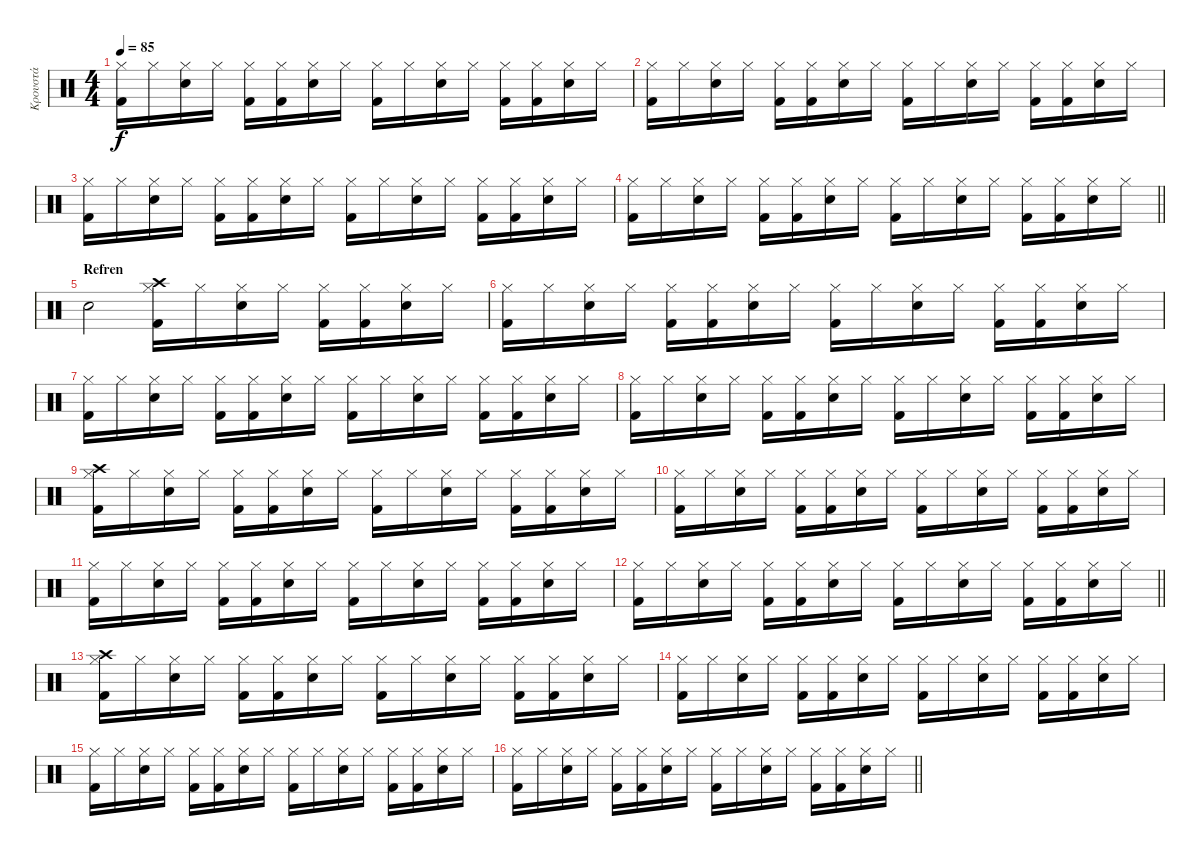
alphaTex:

\track ("Κρουστά" "Κρουστά") {instrument percussion}
\staff {score}
\articulation defaults
\ts (4 4)
\tempo 85
\clef neutral
\ks c
("Hi-Hat (closed)" "Kick (hit) 2").16{dy f} "Hi-Hat (closed)".16 ("Hi-Hat (closed)" "Snare (hit) 2").16 "Hi-Hat (closed)".16 ("Hi-Hat (closed)" "Kick (hit) 2").16 ("Hi-Hat (closed)" "Kick (hit) 2").16 ("Hi-Hat (closed)" "Snare (hit) 2").16 "Hi-Hat (closed)".16 ("Hi-Hat (closed)" "Kick (hit) 2").16 "Hi-Hat (closed)".16 ("Hi-Hat (closed)" "Snare (hit) 2").16 "Hi-Hat (closed)".16 ("Hi-Hat (closed)" "Kick (hit) 2").16 ("Hi-Hat (closed)" "Kick (hit) 2").16 ("Hi-Hat (closed)" "Snare (hit) 2").16 "Hi-Hat (closed)".16 |
("Hi-Hat (closed)" "Kick (hit) 2").16 "Hi-Hat (closed)".16 ("Hi-Hat (closed)" "Snare (hit) 2").16 "Hi-Hat (closed)".16 ("Hi-Hat (closed)" "Kick (hit) 2").16 ("Hi-Hat (closed)" "Kick (hit) 2").16 ("Hi-Hat (closed)" "Snare (hit) 2").16 "Hi-Hat (closed)".16 ("Hi-Hat (closed)" "Kick (hit) 2").16 "Hi-Hat (closed)".16 ("Hi-Hat (closed)" "Snare (hit) 2").16 "Hi-Hat (closed)".16 ("Hi-Hat (closed)" "Kick (hit) 2").16 ("Hi-Hat (closed)" "Kick (hit) 2").16 ("Hi-Hat (closed)" "Snare (hit) 2").16 "Hi-Hat (closed)".16 |
("Hi-Hat (closed)" "Kick (hit) 2").16 "Hi-Hat (closed)".16 ("Hi-Hat (closed)" "Snare (hit) 2").16 "Hi-Hat (closed)".16 ("Hi-Hat (closed)" "Kick (hit) 2").16 ("Hi-Hat (closed)" "Kick (hit) 2").16 ("Hi-Hat (closed)" "Snare (hit) 2").16 "Hi-Hat (closed)".16 ("Hi-Hat (closed)" "Kick (hit) 2").16 "Hi-Hat (closed)".16 ("Hi-Hat (closed)" "Snare (hit) 2").16 "Hi-Hat (closed)".16 ("Hi-Hat (closed)" "Kick (hit) 2").16 ("Hi-Hat (closed)" "Kick (hit) 2").16 ("Hi-Hat (closed)" "Snare (hit) 2").16 "Hi-Hat (closed)".16 |
\barLineRight lightlight
("Hi-Hat (closed)" "Kick (hit) 2").16 "Hi-Hat (closed)".16 ("Hi-Hat (closed)" "Snare (hit) 2").16 "Hi-Hat (closed)".16 ("Hi-Hat (closed)" "Kick (hit) 2").16 ("Hi-Hat (closed)" "Kick (hit) 2").16 ("Hi-Hat (closed)" "Snare (hit) 2").16 "Hi-Hat (closed)".16 ("Hi-Hat (closed)" "Kick (hit) 2").16 "Hi-Hat (closed)".16 ("Hi-Hat (closed)" "Snare (hit) 2").16 "Hi-Hat (closed)".16 ("Hi-Hat (closed)" "Kick (hit) 2").16 ("Hi-Hat (closed)" "Kick (hit) 2").16 ("Hi-Hat (closed)" "Snare (hit) 2").16 "Hi-Hat (closed)".16 |
\section ("" "Refren")
"Snare (hit) 2".2 ("Crash high (hit)" "Hi-Hat (closed)" "Kick (hit) 2").16 "Hi-Hat (closed)".16 ("Hi-Hat (closed)" "Snare (hit) 2").16 "Hi-Hat (closed)".16 ("Hi-Hat (closed)" "Kick (hit) 2").16 ("Hi-Hat (closed)" "Kick (hit) 2").16 ("Hi-Hat (closed)" "Snare (hit) 2").16 "Hi-Hat (closed)".16 |
("Hi-Hat (closed)" "Kick (hit) 2").16 "Hi-Hat (closed)".16 ("Hi-Hat (closed)" "Snare (hit) 2").16 "Hi-Hat (closed)".16 ("Hi-Hat (closed)" "Kick (hit) 2").16 ("Hi-Hat (closed)" "Kick (hit) 2").16 ("Hi-Hat (closed)" "Snare (hit) 2").16 "Hi-Hat (closed)".16 ("Hi-Hat (closed)" "Kick (hit) 2").16 "Hi-Hat (closed)".16 ("Hi-Hat (closed)" "Snare (hit) 2").16 "Hi-Hat (closed)".16 ("Hi-Hat (closed)" "Kick (hit) 2").16 ("Hi-Hat (closed)" "Kick (hit) 2").16 ("Hi-Hat (closed)" "Snare (hit) 2").16 "Hi-Hat (closed)".16 |
("Hi-Hat (closed)" "Kick (hit) 2").16 "Hi-Hat (closed)".16 ("Hi-Hat (closed)" "Snare (hit) 2").16 "Hi-Hat (closed)".16 ("Hi-Hat (closed)" "Kick (hit) 2").16 ("Hi-Hat (closed)" "Kick (hit) 2").16 ("Hi-Hat (closed)" "Snare (hit) 2").16 "Hi-Hat (closed)".16 ("Hi-Hat (closed)" "Kick (hit) 2").16 "Hi-Hat (closed)".16 ("Hi-Hat (closed)" "Snare (hit) 2").16 "Hi-Hat (closed)".16 ("Hi-Hat (closed)" "Kick (hit) 2").16 ("Hi-Hat (closed)" "Kick (hit) 2").16 ("Hi-Hat (closed)" "Snare (hit) 2").16 "Hi-Hat (closed)".16 |
("Hi-Hat (closed)" "Kick (hit) 2").16 "Hi-Hat (closed)".16 ("Hi-Hat (closed)" "Snare (hit) 2").16 "Hi-Hat (closed)".16 ("Hi-Hat (closed)" "Kick (hit) 2").16 ("Hi-Hat (closed)" "Kick (hit) 2").16 ("Hi-Hat (closed)" "Snare (hit) 2").16 "Hi-Hat (closed)".16 ("Hi-Hat (closed)" "Kick (hit) 2").16 "Hi-Hat (closed)".16 ("Hi-Hat (closed)" "Snare (hit) 2").16 "Hi-Hat (closed)".16 ("Hi-Hat (closed)" "Kick (hit) 2").16 ("Hi-Hat (closed)" "Kick (hit) 2").16 ("Hi-Hat (closed)" "Snare (hit) 2").16 "Hi-Hat (closed)".16 |
("Crash high (hit)" "Hi-Hat (closed)" "Kick (hit) 2").16 "Hi-Hat (closed)".16 ("Hi-Hat (closed)" "Snare (hit) 2").16 "Hi-Hat (closed)".16 ("Hi-Hat (closed)" "Kick (hit) 2").16 ("Hi-Hat (closed)" "Kick (hit) 2").16 ("Hi-Hat (closed)" "Snare (hit) 2").16 "Hi-Hat (closed)".16 ("Hi-Hat (closed)" "Kick (hit) 2").16 "Hi-Hat (closed)".16 ("Hi-Hat (closed)" "Snare (hit) 2").16 "Hi-Hat (closed)".16 ("Hi-Hat (closed)" "Kick (hit) 2").16 ("Hi-Hat (closed)" "Kick (hit) 2").16 ("Hi-Hat (closed)" "Snare (hit) 2").16 "Hi-Hat (closed)".16 |
("Hi-Hat (closed)" "Kick (hit) 2").16 "Hi-Hat (closed)".16 ("Hi-Hat (closed)" "Snare (hit) 2").16 "Hi-Hat (closed)".16 ("Hi-Hat (closed)" "Kick (hit) 2").16 ("Hi-Hat (closed)" "Kick (hit) 2").16 ("Hi-Hat (closed)" "Snare (hit) 2").16 "Hi-Hat (closed)".16 ("Hi-Hat (closed)" "Kick (hit) 2").16 "Hi-Hat (closed)".16 ("Hi-Hat (closed)" "Snare (hit) 2").16 "Hi-Hat (closed)".16 ("Hi-Hat (closed)" "Kick (hit) 2").16 ("Hi-Hat (closed)" "Kick (hit) 2").16 ("Hi-Hat (closed)" "Snare (hit) 2").16 "Hi-Hat (closed)".16 |
("Hi-Hat (closed)" "Kick (hit) 2").16 "Hi-Hat (closed)".16 ("Hi-Hat (closed)" "Snare (hit) 2").16 "Hi-Hat (closed)".16 ("Hi-Hat (closed)" "Kick (hit) 2").16 ("Hi-Hat (closed)" "Kick (hit) 2").16 ("Hi-Hat (closed)" "Snare (hit) 2").16 "Hi-Hat (closed)".16 ("Hi-Hat (closed)" "Kick (hit) 2").16 "Hi-Hat (closed)".16 ("Hi-Hat (closed)" "Snare (hit) 2").16 "Hi-Hat (closed)".16 ("Hi-Hat (closed)" "Kick (hit) 2").16 ("Hi-Hat (closed)" "Kick (hit) 2").16 ("Hi-Hat (closed)" "Snare (hit) 2").16 "Hi-Hat (closed)".16 |
\barLineRight lightlight
("Hi-Hat (closed)" "Kick (hit) 2").16 "Hi-Hat (closed)".16 ("Hi-Hat (closed)" "Snare (hit) 2").16 "Hi-Hat (closed)".16 ("Hi-Hat (closed)" "Kick (hit) 2").16 ("Hi-Hat (closed)" "Kick (hit) 2").16 ("Hi-Hat (closed)" "Snare (hit) 2").16 "Hi-Hat (closed)".16 ("Hi-Hat (closed)" "Kick (hit) 2").16 "Hi-Hat (closed)".16 ("Hi-Hat (closed)" "Snare (hit) 2").16 "Hi-Hat (closed)".16 ("Hi-Hat (closed)" "Kick (hit) 2").16 ("Hi-Hat (closed)" "Kick (hit) 2").16 ("Hi-Hat (closed)" "Snare (hit) 2").16 "Hi-Hat (closed)".16 |
("Crash high (hit)" "Hi-Hat (closed)" "Kick (hit) 2").16 "Hi-Hat (closed)".16 ("Hi-Hat (closed)" "Snare (hit) 2").16 "Hi-Hat (closed)".16 ("Hi-Hat (closed)" "Kick (hit) 2").16 ("Hi-Hat (closed)" "Kick (hit) 2").16 ("Hi-Hat (closed)" "Snare (hit) 2").16 "Hi-Hat (closed)".16 ("Hi-Hat (closed)" "Kick (hit) 2").16 "Hi-Hat (closed)".16 ("Hi-Hat (closed)" "Snare (hit) 2").16 "Hi-Hat (closed)".16 ("Hi-Hat (closed)" "Kick (hit) 2").16 ("Hi-Hat (closed)" "Kick (hit) 2").16 ("Hi-Hat (closed)" "Snare (hit) 2").16 "Hi-Hat (closed)".16 |
("Hi-Hat (closed)" "Kick (hit) 2").16 "Hi-Hat (closed)".16 ("Hi-Hat (closed)" "Snare (hit) 2").16 "Hi-Hat (closed)".16 ("Hi-Hat (closed)" "Kick (hit) 2").16 ("Hi-Hat (closed)" "Kick (hit) 2").16 ("Hi-Hat (closed)" "Snare (hit) 2").16 "Hi-Hat (closed)".16 ("Hi-Hat (closed)" "Kick (hit) 2").16 "Hi-Hat (closed)".16 ("Hi-Hat (closed)" "Snare (hit) 2").16 "Hi-Hat (closed)".16 ("Hi-Hat (closed)" "Kick (hit) 2").16 ("Hi-Hat (closed)" "Kick (hit) 2").16 ("Hi-Hat (closed)" "Snare (hit) 2").16 "Hi-Hat (closed)".16 |
("Hi-Hat (closed)" "Kick (hit) 2").16 "Hi-Hat (closed)".16 ("Hi-Hat (closed)" "Snare (hit) 2").16 "Hi-Hat (closed)".16 ("Hi-Hat (closed)" "Kick (hit) 2").16 ("Hi-Hat (closed)" "Kick (hit) 2").16 ("Hi-Hat (closed)" "Snare (hit) 2").16 "Hi-Hat (closed)".16 ("Hi-Hat (closed)" "Kick (hit) 2").16 "Hi-Hat (closed)".16 ("Hi-Hat (closed)" "Snare (hit) 2").16 "Hi-Hat (closed)".16 ("Hi-Hat (closed)" "Kick (hit) 2").16 ("Hi-Hat (closed)" "Kick (hit) 2").16 ("Hi-Hat (closed)" "Snare (hit) 2").16 "Hi-Hat (closed)".16 |
\barLineRight lightlight
("Hi-Hat (closed)" "Kick (hit) 2").16 "Hi-Hat (closed)".16 ("Hi-Hat (closed)" "Snare (hit) 2").16 "Hi-Hat (closed)".16 ("Hi-Hat (closed)" "Kick (hit) 2").16 ("Hi-Hat (closed)" "Kick (hit) 2").16 ("Hi-Hat (closed)" "Snare (hit) 2").16 "Hi-Hat (closed)".16 ("Hi-Hat (closed)" "Kick (hit) 2").16 "Hi-Hat (closed)".16 ("Hi-Hat (closed)" "Snare (hit) 2").16 "Hi-Hat (closed)".16 ("Hi-Hat (closed)" "Kick (hit) 2").16 ("Hi-Hat (closed)" "Kick (hit) 2").16 ("Hi-Hat (closed)" "Snare (hit) 2").16 "Hi-Hat (closed)".16
